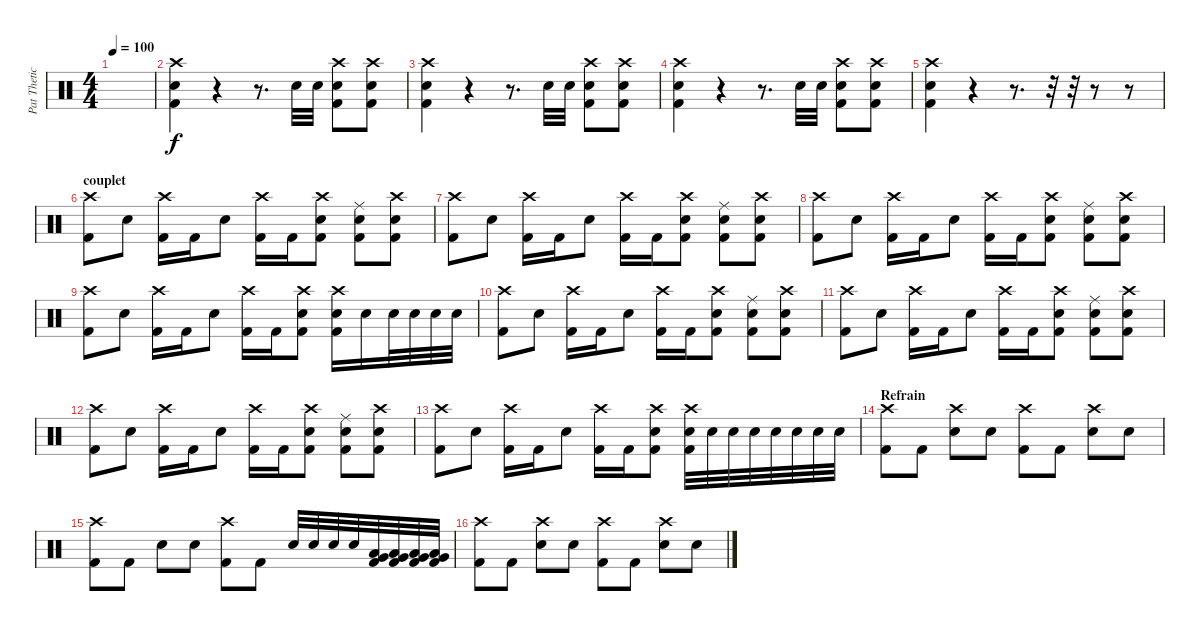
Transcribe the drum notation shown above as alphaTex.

\track ("Pat Thetic" "Pat Thetic") {instrument percussion}
\staff {score}
\articulation defaults
\ts (4 4)
\tempo 100
\clef neutral
\ks c
|
("Crash high (hit)" "Snare (hit) 2" "Kick (hit) 2").4 r.4 r.8{d} "Snare (hit) 2".32 "Snare (hit) 2".32 ("Crash high (hit)" "Kick (hit) 2" "Snare (hit) 2").8 ("Crash high (hit)" "Kick (hit) 2" "Snare (hit) 2").8 |
("Crash high (hit)" "Snare (hit) 2" "Kick (hit) 2").4 r.4 r.8{d} "Snare (hit) 2".32 "Snare (hit) 2".32 ("Crash high (hit)" "Kick (hit) 2" "Snare (hit) 2").8 ("Crash high (hit)" "Kick (hit) 2" "Snare (hit) 2").8 |
("Crash high (hit)" "Snare (hit) 2" "Kick (hit) 2").4 r.4 r.8{d} "Snare (hit) 2".32 "Snare (hit) 2".32 ("Crash high (hit)" "Kick (hit) 2" "Snare (hit) 2").8 ("Crash high (hit)" "Kick (hit) 2" "Snare (hit) 2").8 |
("Crash high (hit)" "Snare (hit) 2" "Kick (hit) 2").4 r.4 r.8{d} r.32 r.32 r.8 r.8 |
\section ("" "couplet")
("Crash high (hit)" "Kick (hit) 2").8 "Snare (hit) 2".8 ("Crash high (hit)" "Kick (hit) 2").16 "Kick (hit) 2".16 "Snare (hit) 2".8 ("Crash high (hit)" "Kick (hit) 2").16 "Kick (hit) 2".16 ("Kick (hit) 2" "Crash high (hit)" "Snare (hit) 2").8 ("Kick (hit) 2" "Ride (middle)" "Snare (hit) 2").8 ("Kick (hit) 2" "Crash high (hit)" "Snare (hit) 2").8 |
("Crash high (hit)" "Kick (hit) 2").8 "Snare (hit) 2".8 ("Crash high (hit)" "Kick (hit) 2").16 "Kick (hit) 2".16 "Snare (hit) 2".8 ("Crash high (hit)" "Kick (hit) 2").16 "Kick (hit) 2".16 ("Kick (hit) 2" "Crash high (hit)" "Snare (hit) 2").8 ("Kick (hit) 2" "Ride (middle)" "Snare (hit) 2").8 ("Kick (hit) 2" "Crash high (hit)" "Snare (hit) 2").8 |
("Crash high (hit)" "Kick (hit) 2").8 "Snare (hit) 2".8 ("Crash high (hit)" "Kick (hit) 2").16 "Kick (hit) 2".16 "Snare (hit) 2".8 ("Crash high (hit)" "Kick (hit) 2").16 "Kick (hit) 2".16 ("Kick (hit) 2" "Crash high (hit)" "Snare (hit) 2").8 ("Kick (hit) 2" "Ride (middle)" "Snare (hit) 2").8 ("Kick (hit) 2" "Crash high (hit)" "Snare (hit) 2").8 |
("Crash high (hit)" "Kick (hit) 2").8 "Snare (hit) 2".8 ("Crash high (hit)" "Kick (hit) 2").16 "Kick (hit) 2".16 "Snare (hit) 2".8 ("Crash high (hit)" "Kick (hit) 2").16 "Kick (hit) 2".16 ("Kick (hit) 2" "Crash high (hit)" "Snare (hit) 2").8 ("Kick (hit) 2" "Crash high (hit)" "Snare (hit) 2").16 "Snare (hit) 2".16 "Snare (hit) 2".32 "Snare (hit) 2".32 "Snare (hit) 2".32 "Snare (hit) 2".32 |
("Crash high (hit)" "Kick (hit) 2").8 "Snare (hit) 2".8 ("Crash high (hit)" "Kick (hit) 2").16 "Kick (hit) 2".16 "Snare (hit) 2".8 ("Crash high (hit)" "Kick (hit) 2").16 "Kick (hit) 2".16 ("Kick (hit) 2" "Crash high (hit)" "Snare (hit) 2").8 ("Kick (hit) 2" "Ride (middle)" "Snare (hit) 2").8 ("Kick (hit) 2" "Crash high (hit)" "Snare (hit) 2").8 |
("Crash high (hit)" "Kick (hit) 2").8 "Snare (hit) 2".8 ("Crash high (hit)" "Kick (hit) 2").16 "Kick (hit) 2".16 "Snare (hit) 2".8 ("Crash high (hit)" "Kick (hit) 2").16 "Kick (hit) 2".16 ("Kick (hit) 2" "Crash high (hit)" "Snare (hit) 2").8 ("Kick (hit) 2" "Ride (middle)" "Snare (hit) 2").8 ("Kick (hit) 2" "Crash high (hit)" "Snare (hit) 2").8 |
("Crash high (hit)" "Kick (hit) 2").8 "Snare (hit) 2".8 ("Crash high (hit)" "Kick (hit) 2").16 "Kick (hit) 2".16 "Snare (hit) 2".8 ("Crash high (hit)" "Kick (hit) 2").16 "Kick (hit) 2".16 ("Kick (hit) 2" "Crash high (hit)" "Snare (hit) 2").8 ("Kick (hit) 2" "Ride (middle)" "Snare (hit) 2").8 ("Kick (hit) 2" "Crash high (hit)" "Snare (hit) 2").8 |
("Crash high (hit)" "Kick (hit) 2").8 "Snare (hit) 2".8 ("Crash high (hit)" "Kick (hit) 2").16 "Kick (hit) 2".16 "Snare (hit) 2".8 ("Crash high (hit)" "Kick (hit) 2").16 "Kick (hit) 2".16 ("Kick (hit) 2" "Crash high (hit)" "Snare (hit) 2").8 ("Kick (hit) 2" "Crash high (hit)" "Snare (hit) 2").32 "Snare (hit) 2".32 "Snare (hit) 2".32 "Snare (hit) 2".32 "Snare (hit) 2".32 "Snare (hit) 2".32 "Snare (hit) 2".32 "Snare (hit) 2".32 |
\section ("" "Refrain")
("Crash high (hit)" "Kick (hit) 2").8 "Kick (hit) 2".8 ("Crash high (hit)" "Snare (hit) 2").8 "Snare (hit) 2".8 ("Crash high (hit)" "Kick (hit) 2").8 "Kick (hit) 2".8 ("Crash high (hit)" "Snare (hit) 2").8 "Snare (hit) 2".8 |
("Crash high (hit)" "Kick (hit) 2").8 "Kick (hit) 2".8 "Snare (hit) 2".8 "Snare (hit) 2".8 ("Crash high (hit)" "Kick (hit) 2").8 "Kick (hit) 2".8 "Snare (hit) 2".32 "Snare (hit) 2".32 "Snare (hit) 2".32 "Snare (hit) 2".32 ("Kick (hit) 2" "Low Floor Tom (hit)" "Very Low Tom (hit)").32 ("Kick (hit) 2" "Low Floor Tom (hit)" "Very Low Tom (hit)").32 ("Kick (hit) 2" "Low Floor Tom (hit)" "Very Low Tom (hit)").32 ("Kick (hit) 2" "Low Floor Tom (hit)" "Very Low Tom (hit)").32 |
("Crash high (hit)" "Kick (hit) 2").8 "Kick (hit) 2".8 ("Crash high (hit)" "Snare (hit) 2").8 "Snare (hit) 2".8 ("Crash high (hit)" "Kick (hit) 2").8 "Kick (hit) 2".8 ("Crash high (hit)" "Snare (hit) 2").8 "Snare (hit) 2".8
